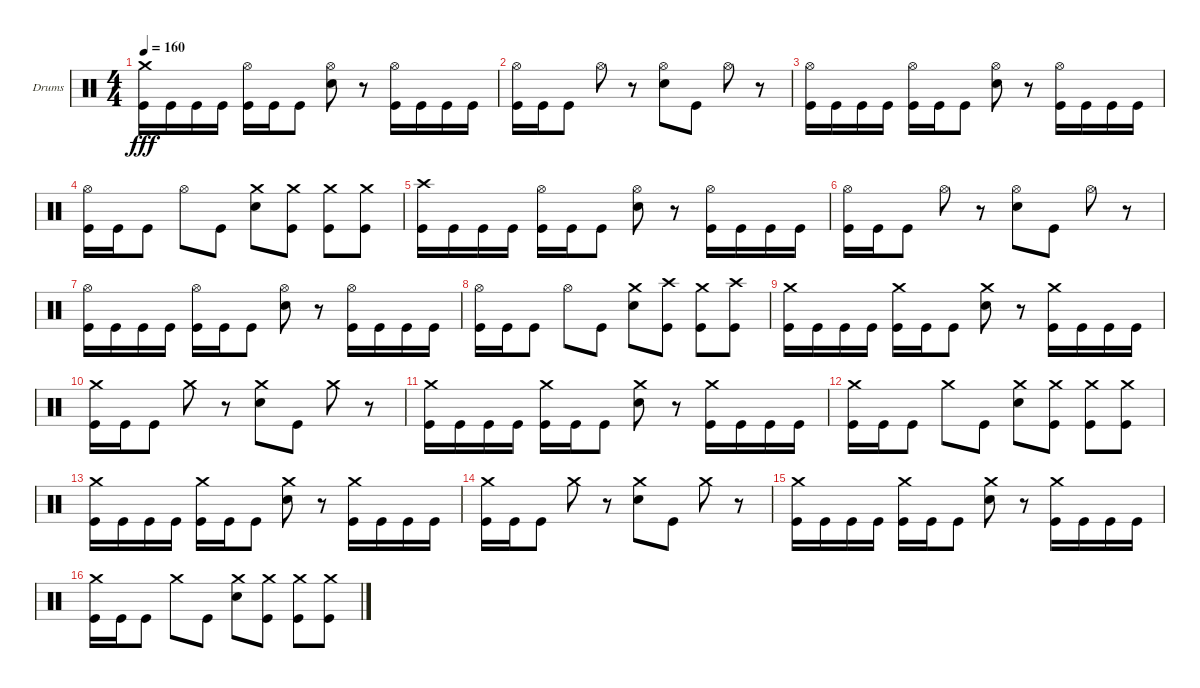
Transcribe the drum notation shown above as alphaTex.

\bracketExtendMode groupsimilarinstruments
\firstSystemTrackNameOrientation horizontal
\otherSystemsTrackNameOrientation horizontal
\track ("Drums" "Drums") {instrument percussion}
\staff {score}
\articulation defaults
\ts (4 4)
\tempo 160
\clef neutral
\ks c
("Crash medium (hit)" "Kick (hit)").16{dy fff} "Kick (hit)".16 "Kick (hit)".16 "Kick (hit)".16 ("Hi-Hat (open)" "Kick (hit)").16 "Kick (hit)".16 "Kick (hit)".8 ("Hi-Hat (open)" "Snare (hit) 2").8 r.8 ("Hi-Hat (open)" "Kick (hit)").16 "Kick (hit)".16 "Kick (hit)".16 "Kick (hit)".16 |
("Hi-Hat (open)" "Kick (hit)").16 "Kick (hit)".16 "Kick (hit)".8 "Hi-Hat (open)".8 r.8 ("Snare (hit) 2" "Hi-Hat (open)").8 "Kick (hit)".8 "Hi-Hat (open)".8 r.8 |
("Hi-Hat (open)" "Kick (hit)").16 "Kick (hit)".16 "Kick (hit)".16 "Kick (hit)".16 ("Hi-Hat (open)" "Kick (hit)").16 "Kick (hit)".16 "Kick (hit)".8 ("Hi-Hat (open)" "Snare (hit) 2").8 r.8 ("Hi-Hat (open)" "Kick (hit)").16 "Kick (hit)".16 "Kick (hit)".16 "Kick (hit)".16 |
("Hi-Hat (open)" "Kick (hit)").16 "Kick (hit)".16 "Kick (hit)".8 "Hi-Hat (open)".8 "Kick (hit)".8 ("Snare (hit) 2" "Crash medium (hit)").8 ("Crash medium (hit)" "Kick (hit)").8 ("Crash medium (hit)" "Kick (hit)").8 ("Crash medium (hit)" "Kick (hit)").8 |
("Crash high (hit)" "Kick (hit)").16 "Kick (hit)".16 "Kick (hit)".16 "Kick (hit)".16 ("Hi-Hat (open)" "Kick (hit)").16 "Kick (hit)".16 "Kick (hit)".8 ("Hi-Hat (open)" "Snare (hit) 2").8 r.8 ("Hi-Hat (open)" "Kick (hit)").16 "Kick (hit)".16 "Kick (hit)".16 "Kick (hit)".16 |
("Hi-Hat (open)" "Kick (hit)").16 "Kick (hit)".16 "Kick (hit)".8 "Hi-Hat (open)".8 r.8 ("Snare (hit) 2" "Hi-Hat (open)").8 "Kick (hit)".8 "Hi-Hat (open)".8 r.8 |
("Hi-Hat (open)" "Kick (hit)").16 "Kick (hit)".16 "Kick (hit)".16 "Kick (hit)".16 ("Hi-Hat (open)" "Kick (hit)").16 "Kick (hit)".16 "Kick (hit)".8 ("Snare (hit) 2" "Hi-Hat (open)").8 r.8 ("Hi-Hat (open)" "Kick (hit)").16 "Kick (hit)".16 "Kick (hit)".16 "Kick (hit)".16 |
("Hi-Hat (open)" "Kick (hit)").16 "Kick (hit)".16 "Kick (hit)".8 "Hi-Hat (open)".8 "Kick (hit)".8 ("Crash medium (hit)" "Snare (hit) 2").8 ("Crash high (hit)" "Kick (hit)").8 ("Crash medium (hit)" "Kick (hit)").8 ("Crash high (hit)" "Kick (hit)").8 |
("Crash medium (hit)" "Kick (hit)").16 "Kick (hit)".16 "Kick (hit)".16 "Kick (hit)".16 ("Crash medium (hit)" "Kick (hit)").16 "Kick (hit)".16 "Kick (hit)".8 ("Crash medium (hit)" "Snare (hit) 2").8 r.8 ("Crash medium (hit)" "Kick (hit)").16 "Kick (hit)".16 "Kick (hit)".16 "Kick (hit)".16 |
("Crash medium (hit)" "Kick (hit)").16 "Kick (hit)".16 "Kick (hit)".8 "Crash medium (hit)".8 r.8 ("Crash medium (hit)" "Snare (hit) 2").8 "Kick (hit)".8 "Crash medium (hit)".8 r.8 |
("Crash medium (hit)" "Kick (hit)").16 "Kick (hit)".16 "Kick (hit)".16 "Kick (hit)".16 ("Crash medium (hit)" "Kick (hit)").16 "Kick (hit)".16 "Kick (hit)".8 ("Crash medium (hit)" "Snare (hit) 2").8 r.8 ("Crash medium (hit)" "Kick (hit)").16 "Kick (hit)".16 "Kick (hit)".16 "Kick (hit)".16 |
("Crash medium (hit)" "Kick (hit)").16 "Kick (hit)".16 "Kick (hit)".8 "Crash medium (hit)".8 "Kick (hit)".8 ("Crash medium (hit)" "Snare (hit) 2").8 ("Crash medium (hit)" "Kick (hit)").8 ("Crash medium (hit)" "Kick (hit)").8 ("Crash medium (hit)" "Kick (hit)").8 |
("Crash medium (hit)" "Kick (hit)").16 "Kick (hit)".16 "Kick (hit)".16 "Kick (hit)".16 ("Crash medium (hit)" "Kick (hit)").16 "Kick (hit)".16 "Kick (hit)".8 ("Crash medium (hit)" "Snare (hit) 2").8 r.8 ("Crash medium (hit)" "Kick (hit)").16 "Kick (hit)".16 "Kick (hit)".16 "Kick (hit)".16 |
("Crash medium (hit)" "Kick (hit)").16 "Kick (hit)".16 "Kick (hit)".8 "Crash medium (hit)".8 r.8 ("Crash medium (hit)" "Snare (hit) 2").8 "Kick (hit)".8 "Crash medium (hit)".8 r.8 |
("Crash medium (hit)" "Kick (hit)").16 "Kick (hit)".16 "Kick (hit)".16 "Kick (hit)".16 ("Crash medium (hit)" "Kick (hit)").16 "Kick (hit)".16 "Kick (hit)".8 ("Crash medium (hit)" "Snare (hit) 2").8 r.8 ("Crash medium (hit)" "Kick (hit)").16 "Kick (hit)".16 "Kick (hit)".16 "Kick (hit)".16 |
("Crash medium (hit)" "Kick (hit)").16 "Kick (hit)".16 "Kick (hit)".8 "Crash medium (hit)".8 "Kick (hit)".8 ("Crash medium (hit)" "Snare (hit) 2").8 ("Crash medium (hit)" "Kick (hit)").8 ("Crash medium (hit)" "Kick (hit)").8 ("Crash medium (hit)" "Kick (hit)").8
